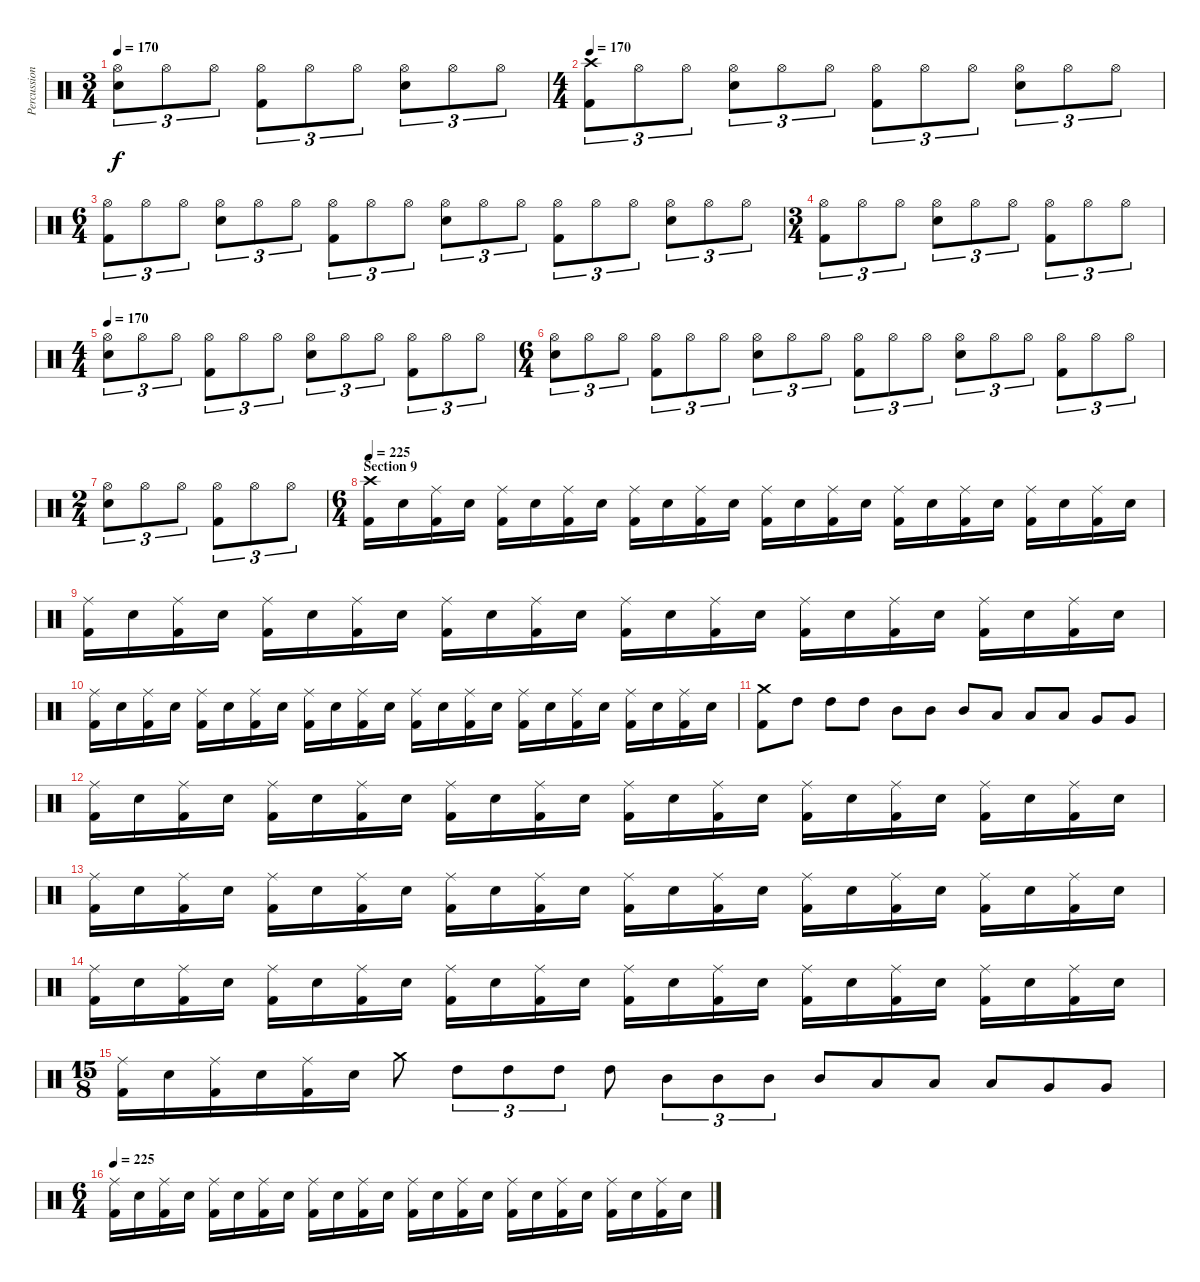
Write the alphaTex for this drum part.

\track ("Percussion" "Percussion") {instrument percussion}
\staff {score}
\articulation defaults
\ts (3 4)
\tempo 170
\clef neutral
\ks c
("Hi-Hat (open)" "Electric Snare (hit)").8{tu (3 2) dy f} "Hi-Hat (open)".8{tu (3 2)} "Hi-Hat (open)".8{tu (3 2)} ("Hi-Hat (open)" "Kick (hit) 2").8{tu (3 2)} "Hi-Hat (open)".8{tu (3 2)} "Hi-Hat (open)".8{tu (3 2)} ("Hi-Hat (open)" "Electric Snare (hit)").8{tu (3 2)} "Hi-Hat (open)".8{tu (3 2)} "Hi-Hat (open)".8{tu (3 2)} |
\ts (4 4)
\tempo 170
("Crash high (hit)" "Kick (hit) 2").8{tu (3 2)} "Hi-Hat (open)".8{tu (3 2)} "Hi-Hat (open)".8{tu (3 2)} ("Hi-Hat (open)" "Electric Snare (hit)").8{tu (3 2)} "Hi-Hat (open)".8{tu (3 2)} "Hi-Hat (open)".8{tu (3 2)} ("Hi-Hat (open)" "Kick (hit) 2").8{tu (3 2)} "Hi-Hat (open)".8{tu (3 2)} "Hi-Hat (open)".8{tu (3 2)} ("Hi-Hat (open)" "Electric Snare (hit)").8{tu (3 2)} "Hi-Hat (open)".8{tu (3 2)} "Hi-Hat (open)".8{tu (3 2)} |
\ts (6 4)
("Hi-Hat (open)" "Kick (hit) 2").8{tu (3 2)} "Hi-Hat (open)".8{tu (3 2)} "Hi-Hat (open)".8{tu (3 2)} ("Hi-Hat (open)" "Electric Snare (hit)").8{tu (3 2)} "Hi-Hat (open)".8{tu (3 2)} "Hi-Hat (open)".8{tu (3 2)} ("Hi-Hat (open)" "Kick (hit) 2").8{tu (3 2)} "Hi-Hat (open)".8{tu (3 2)} "Hi-Hat (open)".8{tu (3 2)} ("Hi-Hat (open)" "Electric Snare (hit)").8{tu (3 2)} "Hi-Hat (open)".8{tu (3 2)} "Hi-Hat (open)".8{tu (3 2)} ("Hi-Hat (open)" "Kick (hit) 2").8{tu (3 2)} "Hi-Hat (open)".8{tu (3 2)} "Hi-Hat (open)".8{tu (3 2)} ("Hi-Hat (open)" "Electric Snare (hit)").8{tu (3 2)} "Hi-Hat (open)".8{tu (3 2)} "Hi-Hat (open)".8{tu (3 2)} |
\ts (3 4)
("Hi-Hat (open)" "Kick (hit) 2").8{tu (3 2)} "Hi-Hat (open)".8{tu (3 2)} "Hi-Hat (open)".8{tu (3 2)} ("Hi-Hat (open)" "Electric Snare (hit)").8{tu (3 2)} "Hi-Hat (open)".8{tu (3 2)} "Hi-Hat (open)".8{tu (3 2)} ("Hi-Hat (open)" "Kick (hit) 2").8{tu (3 2)} "Hi-Hat (open)".8{tu (3 2)} "Hi-Hat (open)".8{tu (3 2)} |
\ts (4 4)
\tempo 170
("Hi-Hat (open)" "Electric Snare (hit)").8{tu (3 2)} "Hi-Hat (open)".8{tu (3 2)} "Hi-Hat (open)".8{tu (3 2)} ("Hi-Hat (open)" "Kick (hit) 2").8{tu (3 2)} "Hi-Hat (open)".8{tu (3 2)} "Hi-Hat (open)".8{tu (3 2)} ("Hi-Hat (open)" "Electric Snare (hit)").8{tu (3 2)} "Hi-Hat (open)".8{tu (3 2)} "Hi-Hat (open)".8{tu (3 2)} ("Hi-Hat (open)" "Kick (hit) 2").8{tu (3 2)} "Hi-Hat (open)".8{tu (3 2)} "Hi-Hat (open)".8{tu (3 2)} |
\ts (6 4)
("Hi-Hat (open)" "Electric Snare (hit)").8{tu (3 2)} "Hi-Hat (open)".8{tu (3 2)} "Hi-Hat (open)".8{tu (3 2)} ("Hi-Hat (open)" "Kick (hit) 2").8{tu (3 2)} "Hi-Hat (open)".8{tu (3 2)} "Hi-Hat (open)".8{tu (3 2)} ("Hi-Hat (open)" "Electric Snare (hit)").8{tu (3 2)} "Hi-Hat (open)".8{tu (3 2)} "Hi-Hat (open)".8{tu (3 2)} ("Hi-Hat (open)" "Kick (hit) 2").8{tu (3 2)} "Hi-Hat (open)".8{tu (3 2)} "Hi-Hat (open)".8{tu (3 2)} ("Hi-Hat (open)" "Electric Snare (hit)").8{tu (3 2)} "Hi-Hat (open)".8{tu (3 2)} "Hi-Hat (open)".8{tu (3 2)} ("Hi-Hat (open)" "Kick (hit) 2").8{tu (3 2)} "Hi-Hat (open)".8{tu (3 2)} "Hi-Hat (open)".8{tu (3 2)} |
\ts (2 4)
("Hi-Hat (open)" "Electric Snare (hit)").8{tu (3 2)} "Hi-Hat (open)".8{tu (3 2)} "Hi-Hat (open)".8{tu (3 2)} ("Hi-Hat (open)" "Kick (hit) 2").8{tu (3 2)} "Hi-Hat (open)".8{tu (3 2)} "Hi-Hat (open)".8{tu (3 2)} |
\ts (6 4)
\section ("" "Section 9")
\tempo 225
("Crash high (hit)" "Kick (hit) 2").16 "Electric Snare (hit)".16 ("Ride (middle)" "Kick (hit) 2").16 "Electric Snare (hit)".16 ("Ride (middle)" "Kick (hit) 2").16 "Electric Snare (hit)".16 ("Ride (middle)" "Kick (hit) 2").16 "Electric Snare (hit)".16 ("Ride (middle)" "Kick (hit) 2").16 "Electric Snare (hit)".16 ("Ride (middle)" "Kick (hit) 2").16 "Electric Snare (hit)".16 ("Ride (middle)" "Kick (hit) 2").16 "Electric Snare (hit)".16 ("Ride (middle)" "Kick (hit) 2").16 "Electric Snare (hit)".16 ("Ride (middle)" "Kick (hit) 2").16 "Electric Snare (hit)".16 ("Ride (middle)" "Kick (hit) 2").16 "Electric Snare (hit)".16 ("Ride (middle)" "Kick (hit) 2").16 "Electric Snare (hit)".16 ("Ride (middle)" "Kick (hit) 2").16 "Electric Snare (hit)".16 |
("Ride (middle)" "Kick (hit) 2").16 "Electric Snare (hit)".16 ("Ride (middle)" "Kick (hit) 2").16 "Electric Snare (hit)".16 ("Ride (middle)" "Kick (hit) 2").16 "Electric Snare (hit)".16 ("Ride (middle)" "Kick (hit) 2").16 "Electric Snare (hit)".16 ("Ride (middle)" "Kick (hit) 2").16 "Electric Snare (hit)".16 ("Ride (middle)" "Kick (hit) 2").16 "Electric Snare (hit)".16 ("Ride (middle)" "Kick (hit) 2").16 "Electric Snare (hit)".16 ("Ride (middle)" "Kick (hit) 2").16 "Electric Snare (hit)".16 ("Ride (middle)" "Kick (hit) 2").16 "Electric Snare (hit)".16 ("Ride (middle)" "Kick (hit) 2").16 "Electric Snare (hit)".16 ("Ride (middle)" "Kick (hit) 2").16 "Electric Snare (hit)".16 ("Ride (middle)" "Kick (hit) 2").16 "Electric Snare (hit)".16 |
("Ride (middle)" "Kick (hit) 2").16 "Electric Snare (hit)".16 ("Ride (middle)" "Kick (hit) 2").16 "Electric Snare (hit)".16 ("Ride (middle)" "Kick (hit) 2").16 "Electric Snare (hit)".16 ("Ride (middle)" "Kick (hit) 2").16 "Electric Snare (hit)".16 ("Ride (middle)" "Kick (hit) 2").16 "Electric Snare (hit)".16 ("Ride (middle)" "Kick (hit) 2").16 "Electric Snare (hit)".16 ("Ride (middle)" "Kick (hit) 2").16 "Electric Snare (hit)".16 ("Ride (middle)" "Kick (hit) 2").16 "Electric Snare (hit)".16 ("Ride (middle)" "Kick (hit) 2").16 "Electric Snare (hit)".16 ("Ride (middle)" "Kick (hit) 2").16 "Electric Snare (hit)".16 ("Ride (middle)" "Kick (hit) 2").16 "Electric Snare (hit)".16 ("Ride (middle)" "Kick (hit) 2").16 "Electric Snare (hit)".16 |
("Crash medium (hit)" "Kick (hit) 2").8 "High Tom (hit)".8 "High Tom (hit)".8 "High Tom (hit)".8 "Mid Tom (hit)".8 "Mid Tom (hit)".8 "Mid Tom (hit)".8 "Low Tom (hit)".8 "Low Tom (hit)".8 "Low Tom (hit)".8 "Very Low Tom (hit)".8 "Very Low Tom (hit)".8 |
("Ride (middle)" "Kick (hit) 2").16 "Electric Snare (hit)".16 ("Ride (middle)" "Kick (hit) 2").16 "Electric Snare (hit)".16 ("Ride (middle)" "Kick (hit) 2").16 "Electric Snare (hit)".16 ("Ride (middle)" "Kick (hit) 2").16 "Electric Snare (hit)".16 ("Ride (middle)" "Kick (hit) 2").16 "Electric Snare (hit)".16 ("Ride (middle)" "Kick (hit) 2").16 "Electric Snare (hit)".16 ("Ride (middle)" "Kick (hit) 2").16 "Electric Snare (hit)".16 ("Ride (middle)" "Kick (hit) 2").16 "Electric Snare (hit)".16 ("Ride (middle)" "Kick (hit) 2").16 "Electric Snare (hit)".16 ("Ride (middle)" "Kick (hit) 2").16 "Electric Snare (hit)".16 ("Ride (middle)" "Kick (hit) 2").16 "Electric Snare (hit)".16 ("Ride (middle)" "Kick (hit) 2").16 "Electric Snare (hit)".16 |
("Ride (middle)" "Kick (hit) 2").16 "Electric Snare (hit)".16 ("Ride (middle)" "Kick (hit) 2").16 "Electric Snare (hit)".16 ("Ride (middle)" "Kick (hit) 2").16 "Electric Snare (hit)".16 ("Ride (middle)" "Kick (hit) 2").16 "Electric Snare (hit)".16 ("Ride (middle)" "Kick (hit) 2").16 "Electric Snare (hit)".16 ("Ride (middle)" "Kick (hit) 2").16 "Electric Snare (hit)".16 ("Ride (middle)" "Kick (hit) 2").16 "Electric Snare (hit)".16 ("Ride (middle)" "Kick (hit) 2").16 "Electric Snare (hit)".16 ("Ride (middle)" "Kick (hit) 2").16 "Electric Snare (hit)".16 ("Ride (middle)" "Kick (hit) 2").16 "Electric Snare (hit)".16 ("Ride (middle)" "Kick (hit) 2").16 "Electric Snare (hit)".16 ("Ride (middle)" "Kick (hit) 2").16 "Electric Snare (hit)".16 |
("Ride (middle)" "Kick (hit) 2").16 "Electric Snare (hit)".16 ("Ride (middle)" "Kick (hit) 2").16 "Electric Snare (hit)".16 ("Ride (middle)" "Kick (hit) 2").16 "Electric Snare (hit)".16 ("Ride (middle)" "Kick (hit) 2").16 "Electric Snare (hit)".16 ("Ride (middle)" "Kick (hit) 2").16 "Electric Snare (hit)".16 ("Ride (middle)" "Kick (hit) 2").16 "Electric Snare (hit)".16 ("Ride (middle)" "Kick (hit) 2").16 "Electric Snare (hit)".16 ("Ride (middle)" "Kick (hit) 2").16 "Electric Snare (hit)".16 ("Ride (middle)" "Kick (hit) 2").16 "Electric Snare (hit)".16 ("Ride (middle)" "Kick (hit) 2").16 "Electric Snare (hit)".16 ("Ride (middle)" "Kick (hit) 2").16 "Electric Snare (hit)".16 ("Ride (middle)" "Kick (hit) 2").16 "Electric Snare (hit)".16 |
\ts (15 8)
("Ride (middle)" "Kick (hit) 2").16 "Electric Snare (hit)".16 ("Ride (middle)" "Kick (hit) 2").16 "Electric Snare (hit)".16 ("Ride (middle)" "Kick (hit) 2").16 "Electric Snare (hit)".16 "Crash medium (hit)".8 "High Tom (hit)".8{tu (3 2)} "High Tom (hit)".8{tu (3 2)} "High Tom (hit)".8{tu (3 2)} "High Tom (hit)".8 "Mid Tom (hit)".8{tu (3 2)} "Mid Tom (hit)".8{tu (3 2)} "Mid Tom (hit)".8{tu (3 2)} "Mid Tom (hit)".8 "Low Tom (hit)".8 "Low Tom (hit)".8 "Low Tom (hit)".8 "Very Low Tom (hit)".8 "Very Low Tom (hit)".8 |
\ts (6 4)
\tempo 225
("Ride (middle)" "Kick (hit) 2").16 "Electric Snare (hit)".16 ("Ride (middle)" "Kick (hit) 2").16 "Electric Snare (hit)".16 ("Ride (middle)" "Kick (hit) 2").16 "Electric Snare (hit)".16 ("Ride (middle)" "Kick (hit) 2").16 "Electric Snare (hit)".16 ("Ride (middle)" "Kick (hit) 2").16 "Electric Snare (hit)".16 ("Ride (middle)" "Kick (hit) 2").16 "Electric Snare (hit)".16 ("Ride (middle)" "Kick (hit) 2").16 "Electric Snare (hit)".16 ("Ride (middle)" "Kick (hit) 2").16 "Electric Snare (hit)".16 ("Ride (middle)" "Kick (hit) 2").16 "Electric Snare (hit)".16 ("Ride (middle)" "Kick (hit) 2").16 "Electric Snare (hit)".16 ("Ride (middle)" "Kick (hit) 2").16 "Electric Snare (hit)".16 ("Ride (middle)" "Kick (hit) 2").16 "Electric Snare (hit)".16
